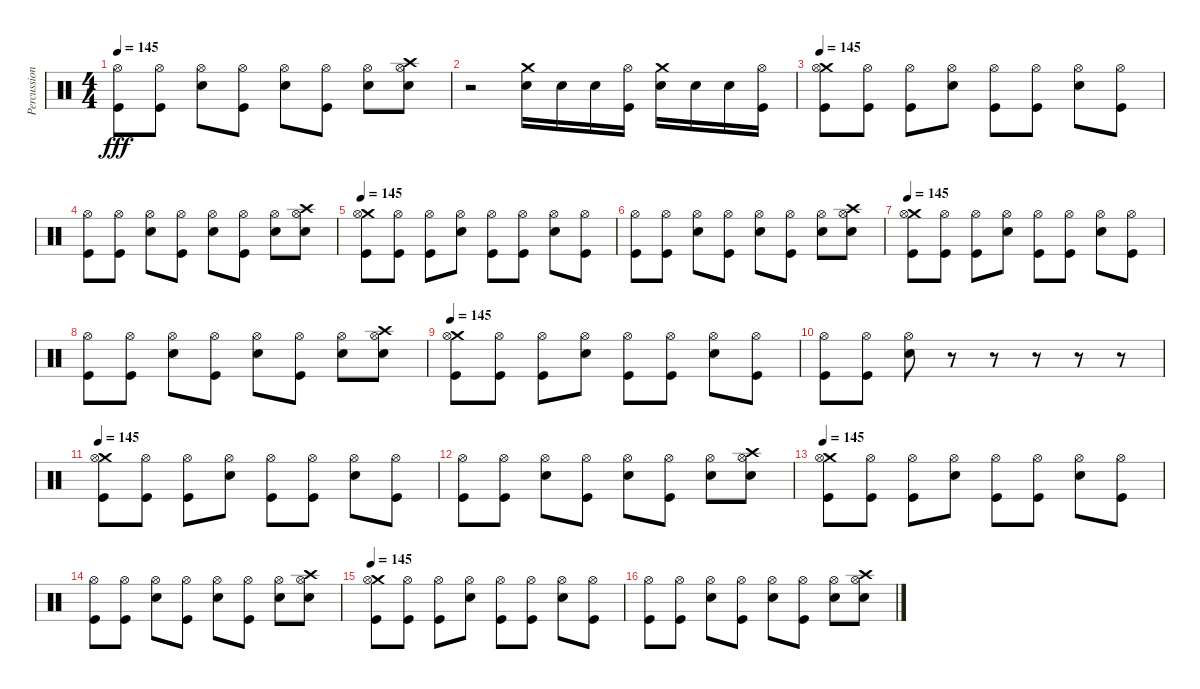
\track ("Percussion" "Percussion") {instrument percussion}
\staff {score}
\articulation defaults
\ts (4 4)
\tempo 145
\clef neutral
\ks c
("Kick (hit)" "Hi-Hat (open)").8{dy fff} ("Kick (hit)" "Hi-Hat (open)").8 ("Snare (hit) 2" "Hi-Hat (open)").8 ("Kick (hit)" "Hi-Hat (open)").8 ("Snare (hit) 2" "Hi-Hat (open)").8 ("Kick (hit)" "Hi-Hat (open)").8 ("Snare (hit) 2" "Hi-Hat (open)").8 ("Crash high (hit)" "Snare (hit) 2" "Hi-Hat (open)").8 |
r.2 ("Crash medium (hit)" "Snare (hit) 2").16 "Snare (hit) 2".16 "Snare (hit) 2".16 ("Hi-Hat (open)" "Kick (hit)").16 ("Crash medium (hit)" "Snare (hit) 2").16 "Snare (hit) 2".16 "Snare (hit) 2".16 ("Hi-Hat (open)" "Kick (hit)").16 |
\tempo 145
("Crash medium (hit)" "Kick (hit)" "Hi-Hat (open)").8 ("Kick (hit)" "Hi-Hat (open)").8 ("Kick (hit)" "Hi-Hat (open)").8 ("Snare (hit) 2" "Hi-Hat (open)").8 ("Kick (hit)" "Hi-Hat (open)").8 ("Kick (hit)" "Hi-Hat (open)").8 ("Snare (hit) 2" "Hi-Hat (open)").8 ("Kick (hit)" "Hi-Hat (open)").8 |
("Kick (hit)" "Hi-Hat (open)").8 ("Kick (hit)" "Hi-Hat (open)").8 ("Snare (hit) 2" "Hi-Hat (open)").8 ("Kick (hit)" "Hi-Hat (open)").8 ("Snare (hit) 2" "Hi-Hat (open)").8 ("Kick (hit)" "Hi-Hat (open)").8 ("Snare (hit) 2" "Hi-Hat (open)").8 ("Crash high (hit)" "Snare (hit) 2" "Hi-Hat (open)").8 |
\tempo 145
("Crash medium (hit)" "Kick (hit)" "Hi-Hat (open)").8 ("Kick (hit)" "Hi-Hat (open)").8 ("Kick (hit)" "Hi-Hat (open)").8 ("Snare (hit) 2" "Hi-Hat (open)").8 ("Kick (hit)" "Hi-Hat (open)").8 ("Kick (hit)" "Hi-Hat (open)").8 ("Snare (hit) 2" "Hi-Hat (open)").8 ("Kick (hit)" "Hi-Hat (open)").8 |
("Kick (hit)" "Hi-Hat (open)").8 ("Kick (hit)" "Hi-Hat (open)").8 ("Snare (hit) 2" "Hi-Hat (open)").8 ("Kick (hit)" "Hi-Hat (open)").8 ("Snare (hit) 2" "Hi-Hat (open)").8 ("Kick (hit)" "Hi-Hat (open)").8 ("Snare (hit) 2" "Hi-Hat (open)").8 ("Crash high (hit)" "Snare (hit) 2" "Hi-Hat (open)").8 |
\tempo 145
("Crash medium (hit)" "Kick (hit)" "Hi-Hat (open)").8 ("Kick (hit)" "Hi-Hat (open)").8 ("Kick (hit)" "Hi-Hat (open)").8 ("Snare (hit) 2" "Hi-Hat (open)").8 ("Kick (hit)" "Hi-Hat (open)").8 ("Kick (hit)" "Hi-Hat (open)").8 ("Snare (hit) 2" "Hi-Hat (open)").8 ("Kick (hit)" "Hi-Hat (open)").8 |
("Kick (hit)" "Hi-Hat (open)").8 ("Kick (hit)" "Hi-Hat (open)").8 ("Snare (hit) 2" "Hi-Hat (open)").8 ("Kick (hit)" "Hi-Hat (open)").8 ("Snare (hit) 2" "Hi-Hat (open)").8 ("Kick (hit)" "Hi-Hat (open)").8 ("Snare (hit) 2" "Hi-Hat (open)").8 ("Crash high (hit)" "Snare (hit) 2" "Hi-Hat (open)").8 |
\tempo 145
("Crash medium (hit)" "Kick (hit)" "Hi-Hat (open)").8 ("Kick (hit)" "Hi-Hat (open)").8 ("Kick (hit)" "Hi-Hat (open)").8 ("Snare (hit) 2" "Hi-Hat (open)").8 ("Kick (hit)" "Hi-Hat (open)").8 ("Kick (hit)" "Hi-Hat (open)").8 ("Snare (hit) 2" "Hi-Hat (open)").8 ("Kick (hit)" "Hi-Hat (open)").8 |
("Kick (hit)" "Hi-Hat (open)").8 ("Kick (hit)" "Hi-Hat (open)").8 ("Snare (hit) 2" "Hi-Hat (open)").8 r.8 r.8 r.8 r.8 r.8 |
\tempo 145
("Crash medium (hit)" "Kick (hit)" "Hi-Hat (open)").8 ("Kick (hit)" "Hi-Hat (open)").8 ("Kick (hit)" "Hi-Hat (open)").8 ("Snare (hit) 2" "Hi-Hat (open)").8 ("Kick (hit)" "Hi-Hat (open)").8 ("Kick (hit)" "Hi-Hat (open)").8 ("Snare (hit) 2" "Hi-Hat (open)").8 ("Kick (hit)" "Hi-Hat (open)").8 |
("Kick (hit)" "Hi-Hat (open)").8 ("Kick (hit)" "Hi-Hat (open)").8 ("Snare (hit) 2" "Hi-Hat (open)").8 ("Kick (hit)" "Hi-Hat (open)").8 ("Snare (hit) 2" "Hi-Hat (open)").8 ("Kick (hit)" "Hi-Hat (open)").8 ("Snare (hit) 2" "Hi-Hat (open)").8 ("Crash high (hit)" "Snare (hit) 2" "Hi-Hat (open)").8 |
\tempo 145
("Crash medium (hit)" "Kick (hit)" "Hi-Hat (open)").8 ("Kick (hit)" "Hi-Hat (open)").8 ("Kick (hit)" "Hi-Hat (open)").8 ("Snare (hit) 2" "Hi-Hat (open)").8 ("Kick (hit)" "Hi-Hat (open)").8 ("Kick (hit)" "Hi-Hat (open)").8 ("Snare (hit) 2" "Hi-Hat (open)").8 ("Kick (hit)" "Hi-Hat (open)").8 |
("Kick (hit)" "Hi-Hat (open)").8 ("Kick (hit)" "Hi-Hat (open)").8 ("Snare (hit) 2" "Hi-Hat (open)").8 ("Kick (hit)" "Hi-Hat (open)").8 ("Snare (hit) 2" "Hi-Hat (open)").8 ("Kick (hit)" "Hi-Hat (open)").8 ("Snare (hit) 2" "Hi-Hat (open)").8 ("Crash high (hit)" "Snare (hit) 2" "Hi-Hat (open)").8 |
\tempo 145
("Crash medium (hit)" "Kick (hit)" "Hi-Hat (open)").8 ("Kick (hit)" "Hi-Hat (open)").8 ("Kick (hit)" "Hi-Hat (open)").8 ("Snare (hit) 2" "Hi-Hat (open)").8 ("Kick (hit)" "Hi-Hat (open)").8 ("Kick (hit)" "Hi-Hat (open)").8 ("Snare (hit) 2" "Hi-Hat (open)").8 ("Kick (hit)" "Hi-Hat (open)").8 |
("Kick (hit)" "Hi-Hat (open)").8 ("Kick (hit)" "Hi-Hat (open)").8 ("Snare (hit) 2" "Hi-Hat (open)").8 ("Kick (hit)" "Hi-Hat (open)").8 ("Snare (hit) 2" "Hi-Hat (open)").8 ("Kick (hit)" "Hi-Hat (open)").8 ("Snare (hit) 2" "Hi-Hat (open)").8 ("Crash high (hit)" "Snare (hit) 2" "Hi-Hat (open)").8
